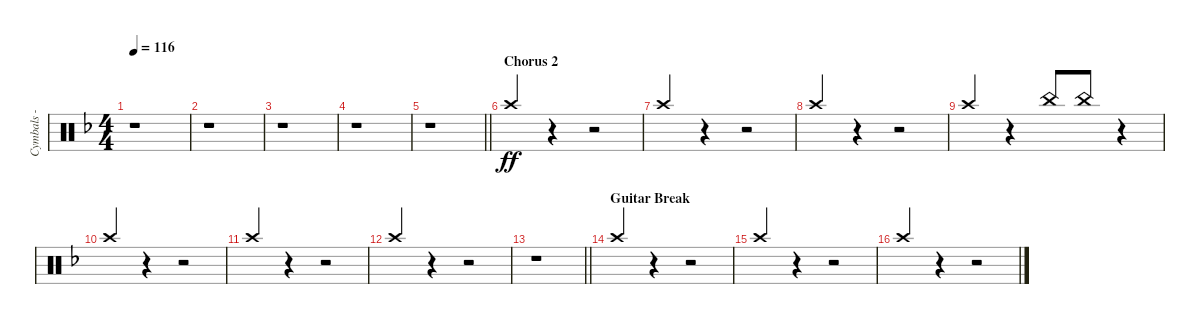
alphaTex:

\track ("Cymbals - crash" "Cymbals - ") {instrument percussion}
\staff {score}
\articulation defaults
\ts (4 4)
\tempo 116
\clef neutral
\ks f
r.1{dy ff} |
r.1 |
r.1 |
r.1 |
\barLineRight lightlight
r.1 |
\section ("" "Chorus 2")
"Crash high (hit)".4{beam Up} r.4 r.2 |
"Crash high (hit)".4{beam Up} r.4 r.2 |
"Crash high (hit)".4{beam Up} r.4 r.2 |
"Crash high (hit)".4{beam Up} r.4 "China (hit)".8{volume 2 balance 5 beam Up} "China (hit)".8{beam Up} r.4 |
"Crash high (hit)".4{volume 4 balance 8 beam Up} r.4 r.2 |
"Crash high (hit)".4{beam Up} r.4 r.2 |
"Crash high (hit)".4{beam Up} r.4 r.2 |
\barLineRight lightlight
r.1 |
\section ("" "Guitar Break")
"Crash high (hit)".4{beam Up} r.4 r.2 |
"Crash high (hit)".4{beam Up} r.4 r.2 |
"Crash high (hit)".4{beam Up} r.4 r.2
